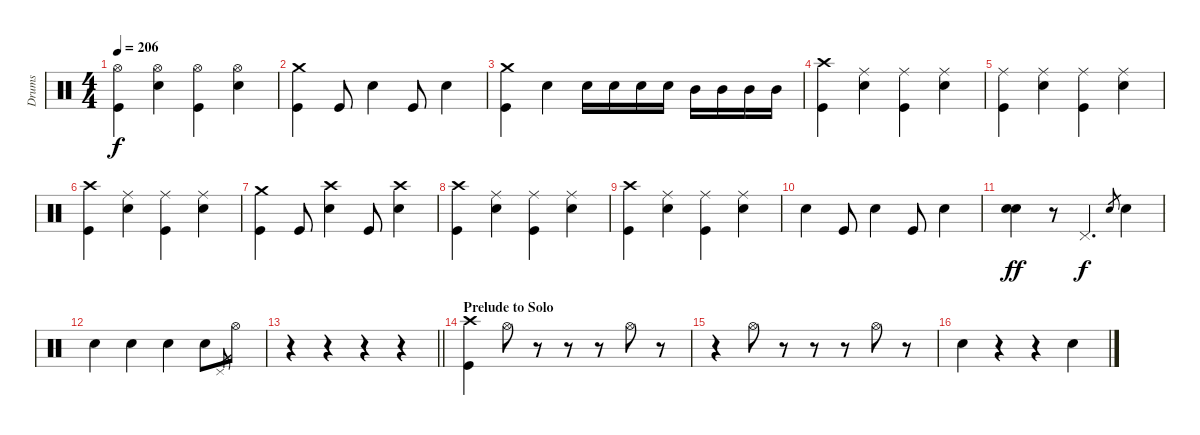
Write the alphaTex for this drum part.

\track ("Drums" "Drums") {instrument percussion}
\staff {score}
\articulation defaults
\ts (4 4)
\tempo 206
\clef neutral
\ks c
("Hi-Hat (open)" "Kick (hit)").4{dy f} ("Hi-Hat (open)" "Electric Snare (hit)").4 ("Hi-Hat (open)" "Kick (hit)").4 ("Hi-Hat (open)" "Electric Snare (hit)").4 |
("Crash medium (hit)" "Kick (hit)").4 "Kick (hit)".8 "Electric Snare (hit)".4 "Kick (hit)".8 "Electric Snare (hit)".4 |
("Crash medium (hit)" "Kick (hit)").4 "Electric Snare (hit)".4 "Electric Snare (hit)".16 "Electric Snare (hit)".16 "Electric Snare (hit)".16 "Electric Snare (hit)".16 "Mid Tom (hit)".16 "Mid Tom (hit)".16 "Mid Tom (hit)".16 "Mid Tom (hit)".16 |
("Crash high (hit)" "Kick (hit)").4 ("Ride (middle)" "Electric Snare (hit)").4 ("Ride (middle)" "Kick (hit)").4 ("Ride (middle)" "Electric Snare (hit)").4 |
("Ride (middle)" "Kick (hit)").4 ("Ride (middle)" "Electric Snare (hit)").4 ("Ride (middle)" "Kick (hit)").4 ("Ride (middle)" "Electric Snare (hit)").4 |
("Crash high (hit)" "Kick (hit)").4 ("Ride (middle)" "Electric Snare (hit)").4 ("Ride (middle)" "Kick (hit)").4 ("Ride (middle)" "Electric Snare (hit)").4 |
("Crash medium (hit)" "Kick (hit)").4 "Kick (hit)".8 ("Crash high (hit)" "Electric Snare (hit)").4 "Kick (hit)".8 ("Crash high (hit)" "Electric Snare (hit)").4 |
("Crash high (hit)" "Kick (hit)").4 ("Ride (middle)" "Electric Snare (hit)").4 ("Ride (middle)" "Kick (hit)").4 ("Ride (middle)" "Electric Snare (hit)").4 |
("Crash high (hit)" "Kick (hit)").4 ("Ride (middle)" "Electric Snare (hit)").4 ("Ride (middle)" "Kick (hit)").4 ("Ride (middle)" "Electric Snare (hit)").4 |
"Electric Snare (hit)".4 "Kick (hit)".8 "Electric Snare (hit)".4 "Kick (hit)".8 "Electric Snare (hit)".4 |
("Electric Snare (hit)" "Electric Snare (hit)").4{dy ff} r.8 "Pedal Hi-Hat (hit)".4{d dy f} "Electric Snare (hit)".8{gr} "Electric Snare (hit)".4 |
"Electric Snare (hit)".4 "Electric Snare (hit)".4 "Electric Snare (hit)".4 "Electric Snare (hit)".8 "Pedal Hi-Hat (hit)".8{gr} "Hi-Hat (open)".8 |
\barLineRight lightlight
r.4 r.4 r.4 r.4 |
\section ("" "Prelude to Solo")
("Crash high (hit)" "Kick (hit)").4 "Hi-Hat (open)".8 r.8 r.8 r.8 "Hi-Hat (open)".8 r.8 |
r.4 "Hi-Hat (open)".8 r.8 r.8 r.8 "Hi-Hat (open)".8 r.8 |
"Electric Snare (hit)".4 r.4 r.4 "Electric Snare (hit)".4
